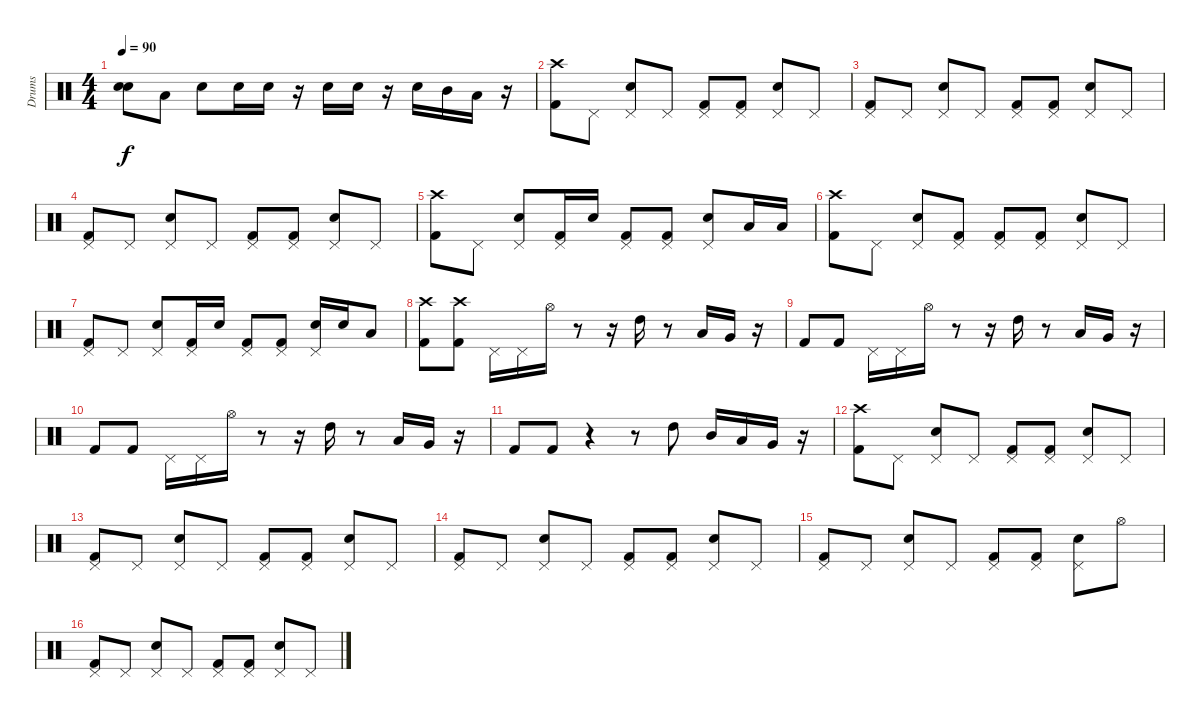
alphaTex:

\track ("Drums" "Drums") {instrument percussion}
\staff {score}
\articulation defaults
\ts (4 4)
\tempo 90
\clef neutral
\ks c
("Snare (hit) 2" "Snare (hit) 2").8{dy f} "Low Tom (hit)".8 "Snare (hit) 2".8 "Snare (hit) 2".16 "Snare (hit) 2".16 r.16 "Snare (hit) 2".16 "Snare (hit) 2".16 r.16 "Snare (hit) 2".16 "Mid Tom (hit)".16 "Low Tom (hit)".16 r.16 |
("Crash high (hit)" "Kick (hit) 2").8 "Pedal Hi-Hat (hit)".8 ("Pedal Hi-Hat (hit)" "Snare (hit) 2").8 "Pedal Hi-Hat (hit)".8 ("Pedal Hi-Hat (hit)" "Kick (hit) 2").8 ("Pedal Hi-Hat (hit)" "Kick (hit) 2").8 ("Pedal Hi-Hat (hit)" "Snare (hit) 2").8 "Pedal Hi-Hat (hit)".8 |
("Pedal Hi-Hat (hit)" "Kick (hit) 2").8 "Pedal Hi-Hat (hit)".8 ("Pedal Hi-Hat (hit)" "Snare (hit) 2").8 "Pedal Hi-Hat (hit)".8 ("Pedal Hi-Hat (hit)" "Kick (hit) 2").8 ("Pedal Hi-Hat (hit)" "Kick (hit) 2").8 ("Pedal Hi-Hat (hit)" "Snare (hit) 2").8 "Pedal Hi-Hat (hit)".8 |
("Pedal Hi-Hat (hit)" "Kick (hit) 2").8 "Pedal Hi-Hat (hit)".8 ("Pedal Hi-Hat (hit)" "Snare (hit) 2").8 "Pedal Hi-Hat (hit)".8 ("Pedal Hi-Hat (hit)" "Kick (hit) 2").8 ("Pedal Hi-Hat (hit)" "Kick (hit) 2").8 ("Pedal Hi-Hat (hit)" "Snare (hit) 2").8 "Pedal Hi-Hat (hit)".8 |
("Crash high (hit)" "Kick (hit) 2").8 "Pedal Hi-Hat (hit)".8 ("Pedal Hi-Hat (hit)" "Snare (hit) 2").8 ("Pedal Hi-Hat (hit)" "Kick (hit) 2").16 "Snare (hit) 2".16 ("Pedal Hi-Hat (hit)" "Kick (hit) 2").8 ("Pedal Hi-Hat (hit)" "Kick (hit) 2").8 ("Pedal Hi-Hat (hit)" "Snare (hit) 2").8 "Low Tom (hit)".16 "Low Tom (hit)".16 |
("Crash high (hit)" "Kick (hit) 2").8 "Pedal Hi-Hat (hit)".8 ("Pedal Hi-Hat (hit)" "Snare (hit) 2").8 ("Pedal Hi-Hat (hit)" "Kick (hit) 2").8 ("Pedal Hi-Hat (hit)" "Kick (hit) 2").8 ("Pedal Hi-Hat (hit)" "Kick (hit) 2").8 ("Pedal Hi-Hat (hit)" "Snare (hit) 2").8 "Pedal Hi-Hat (hit)".8 |
("Pedal Hi-Hat (hit)" "Kick (hit) 2").8 "Pedal Hi-Hat (hit)".8 ("Pedal Hi-Hat (hit)" "Snare (hit) 2").8 ("Pedal Hi-Hat (hit)" "Kick (hit) 2").16 "Snare (hit) 2".16 ("Pedal Hi-Hat (hit)" "Kick (hit) 2").8 ("Pedal Hi-Hat (hit)" "Kick (hit) 2").8 ("Pedal Hi-Hat (hit)" "Snare (hit) 2").16 "Snare (hit) 2".16 "Low Tom (hit)".8 |
("Crash high (hit)" "Kick (hit) 2").8 ("Crash high (hit)" "Kick (hit) 2").8 "Pedal Hi-Hat (hit)".16 "Pedal Hi-Hat (hit)".16 "Hi-Hat (open)".16 r.8 r.16 "High Tom (hit)".16 r.8 "Low Tom (hit)".16 "Very Low Tom (hit)".16 r.16 |
"Kick (hit) 2".8 "Kick (hit) 2".8 "Pedal Hi-Hat (hit)".16 "Pedal Hi-Hat (hit)".16 "Hi-Hat (open)".16 r.8 r.16 "High Tom (hit)".16 r.8 "Low Tom (hit)".16 "Very Low Tom (hit)".16 r.16 |
"Kick (hit) 2".8 "Kick (hit) 2".8 "Pedal Hi-Hat (hit)".16 "Pedal Hi-Hat (hit)".16 "Hi-Hat (open)".16 r.8 r.16 "High Tom (hit)".16 r.8 "Low Tom (hit)".16 "Very Low Tom (hit)".16 r.16 |
"Kick (hit) 2".8 "Kick (hit) 2".8 r.4 r.8 "High Tom (hit)".8 "Mid Tom (hit)".16 "Low Tom (hit)".16 "Very Low Tom (hit)".16 r.16 |
("Crash high (hit)" "Kick (hit) 2").8 "Pedal Hi-Hat (hit)".8 ("Pedal Hi-Hat (hit)" "Snare (hit) 2").8 "Pedal Hi-Hat (hit)".8 ("Pedal Hi-Hat (hit)" "Kick (hit) 2").8 ("Pedal Hi-Hat (hit)" "Kick (hit) 2").8 ("Pedal Hi-Hat (hit)" "Snare (hit) 2").8 "Pedal Hi-Hat (hit)".8 |
("Pedal Hi-Hat (hit)" "Kick (hit) 2").8 "Pedal Hi-Hat (hit)".8 ("Pedal Hi-Hat (hit)" "Snare (hit) 2").8 "Pedal Hi-Hat (hit)".8 ("Pedal Hi-Hat (hit)" "Kick (hit) 2").8 ("Pedal Hi-Hat (hit)" "Kick (hit) 2").8 ("Pedal Hi-Hat (hit)" "Snare (hit) 2").8 "Pedal Hi-Hat (hit)".8 |
("Pedal Hi-Hat (hit)" "Kick (hit) 2").8 "Pedal Hi-Hat (hit)".8 ("Pedal Hi-Hat (hit)" "Snare (hit) 2").8 "Pedal Hi-Hat (hit)".8 ("Pedal Hi-Hat (hit)" "Kick (hit) 2").8 ("Pedal Hi-Hat (hit)" "Kick (hit) 2").8 ("Pedal Hi-Hat (hit)" "Snare (hit) 2").8 "Pedal Hi-Hat (hit)".8 |
("Pedal Hi-Hat (hit)" "Kick (hit) 2").8 "Pedal Hi-Hat (hit)".8 ("Pedal Hi-Hat (hit)" "Snare (hit) 2").8 "Pedal Hi-Hat (hit)".8 ("Pedal Hi-Hat (hit)" "Kick (hit) 2").8 ("Pedal Hi-Hat (hit)" "Kick (hit) 2").8 ("Pedal Hi-Hat (hit)" "Snare (hit) 2").8 "Hi-Hat (open)".8 |
("Pedal Hi-Hat (hit)" "Kick (hit) 2").8 "Pedal Hi-Hat (hit)".8 ("Pedal Hi-Hat (hit)" "Snare (hit) 2").8 "Pedal Hi-Hat (hit)".8 ("Pedal Hi-Hat (hit)" "Kick (hit) 2").8 ("Pedal Hi-Hat (hit)" "Kick (hit) 2").8 ("Pedal Hi-Hat (hit)" "Snare (hit) 2").8 "Pedal Hi-Hat (hit)".8
